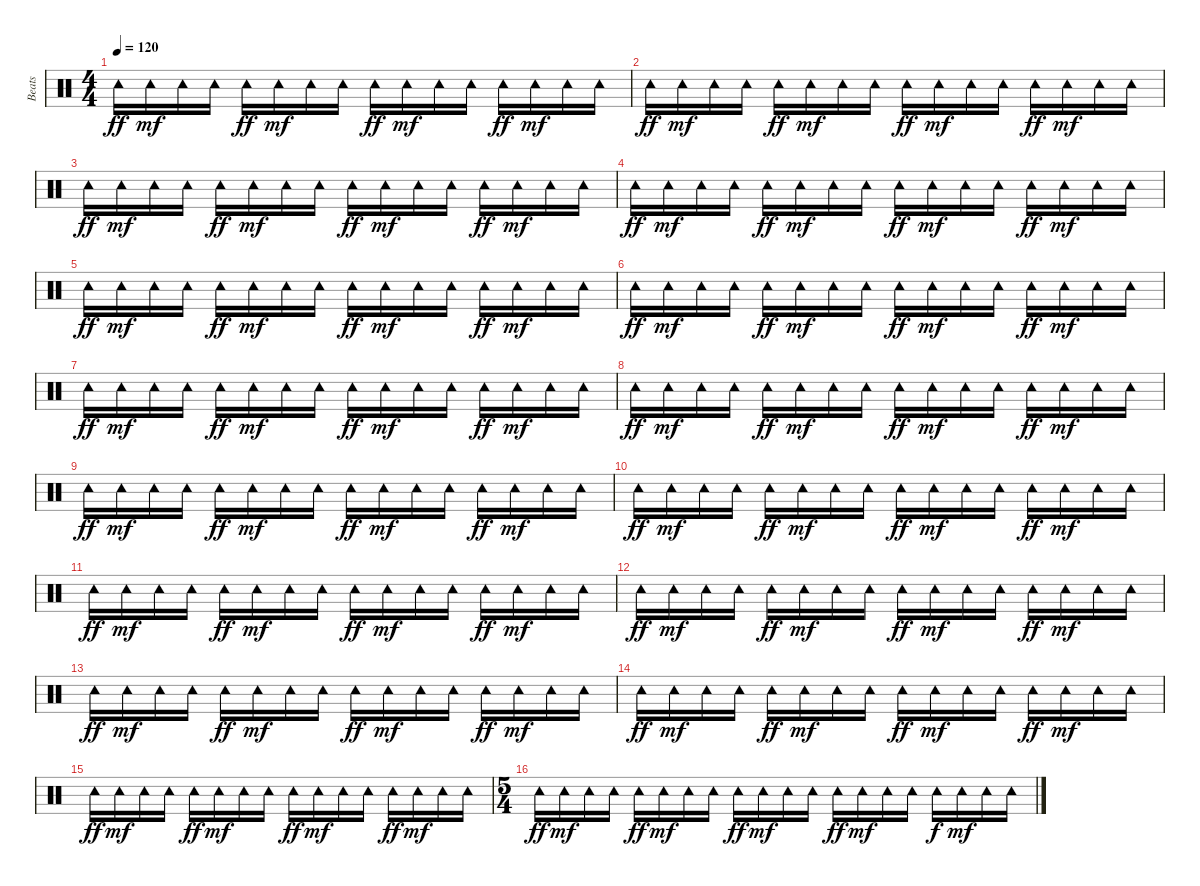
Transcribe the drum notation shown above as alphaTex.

\track ("Beats" "Beats") {instrument percussion}
\staff {score}
\articulation defaults
\ts (4 4)
\tempo 120
\clef neutral
\ks c "Tambourine (hit)".16{dy ff} "Tambourine (hit)".16{dy mf} "Tambourine (hit)".16 "Tambourine (hit)".16 "Tambourine (hit)".16{dy ff} "Tambourine (hit)".16{dy mf} "Tambourine (hit)".16 "Tambourine (hit)".16 "Tambourine (hit)".16{dy ff} "Tambourine (hit)".16{dy mf} "Tambourine (hit)".16 "Tambourine (hit)".16 "Tambourine (hit)".16{dy ff} "Tambourine (hit)".16{dy mf} "Tambourine (hit)".16 "Tambourine (hit)".16
|
"Tambourine (hit)".16{dy ff} "Tambourine (hit)".16{dy mf} "Tambourine (hit)".16 "Tambourine (hit)".16 "Tambourine (hit)".16{dy ff} "Tambourine (hit)".16{dy mf} "Tambourine (hit)".16 "Tambourine (hit)".16 "Tambourine (hit)".16{dy ff} "Tambourine (hit)".16{dy mf} "Tambourine (hit)".16 "Tambourine (hit)".16 "Tambourine (hit)".16{dy ff} "Tambourine (hit)".16{dy mf} "Tambourine (hit)".16 "Tambourine (hit)".16 |
"Tambourine (hit)".16{dy ff} "Tambourine (hit)".16{dy mf} "Tambourine (hit)".16 "Tambourine (hit)".16 "Tambourine (hit)".16{dy ff} "Tambourine (hit)".16{dy mf} "Tambourine (hit)".16 "Tambourine (hit)".16 "Tambourine (hit)".16{dy ff} "Tambourine (hit)".16{dy mf} "Tambourine (hit)".16 "Tambourine (hit)".16 "Tambourine (hit)".16{dy ff} "Tambourine (hit)".16{dy mf} "Tambourine (hit)".16 "Tambourine (hit)".16 |
"Tambourine (hit)".16{dy ff} "Tambourine (hit)".16{dy mf} "Tambourine (hit)".16 "Tambourine (hit)".16 "Tambourine (hit)".16{dy ff} "Tambourine (hit)".16{dy mf} "Tambourine (hit)".16 "Tambourine (hit)".16 "Tambourine (hit)".16{dy ff} "Tambourine (hit)".16{dy mf} "Tambourine (hit)".16 "Tambourine (hit)".16 "Tambourine (hit)".16{dy ff} "Tambourine (hit)".16{dy mf} "Tambourine (hit)".16 "Tambourine (hit)".16 |
"Tambourine (hit)".16{dy ff} "Tambourine (hit)".16{dy mf} "Tambourine (hit)".16 "Tambourine (hit)".16 "Tambourine (hit)".16{dy ff} "Tambourine (hit)".16{dy mf} "Tambourine (hit)".16 "Tambourine (hit)".16 "Tambourine (hit)".16{dy ff} "Tambourine (hit)".16{dy mf} "Tambourine (hit)".16 "Tambourine (hit)".16 "Tambourine (hit)".16{dy ff} "Tambourine (hit)".16{dy mf} "Tambourine (hit)".16 "Tambourine (hit)".16 |
"Tambourine (hit)".16{dy ff} "Tambourine (hit)".16{dy mf} "Tambourine (hit)".16 "Tambourine (hit)".16 "Tambourine (hit)".16{dy ff} "Tambourine (hit)".16{dy mf} "Tambourine (hit)".16 "Tambourine (hit)".16 "Tambourine (hit)".16{dy ff} "Tambourine (hit)".16{dy mf} "Tambourine (hit)".16 "Tambourine (hit)".16 "Tambourine (hit)".16{dy ff} "Tambourine (hit)".16{dy mf} "Tambourine (hit)".16 "Tambourine (hit)".16 |
"Tambourine (hit)".16{dy ff} "Tambourine (hit)".16{dy mf} "Tambourine (hit)".16 "Tambourine (hit)".16 "Tambourine (hit)".16{dy ff} "Tambourine (hit)".16{dy mf} "Tambourine (hit)".16 "Tambourine (hit)".16 "Tambourine (hit)".16{dy ff} "Tambourine (hit)".16{dy mf} "Tambourine (hit)".16 "Tambourine (hit)".16 "Tambourine (hit)".16{dy ff} "Tambourine (hit)".16{dy mf} "Tambourine (hit)".16 "Tambourine (hit)".16 |
"Tambourine (hit)".16{dy ff} "Tambourine (hit)".16{dy mf} "Tambourine (hit)".16 "Tambourine (hit)".16 "Tambourine (hit)".16{dy ff} "Tambourine (hit)".16{dy mf} "Tambourine (hit)".16 "Tambourine (hit)".16 "Tambourine (hit)".16{dy ff} "Tambourine (hit)".16{dy mf} "Tambourine (hit)".16 "Tambourine (hit)".16 "Tambourine (hit)".16{dy ff} "Tambourine (hit)".16{dy mf} "Tambourine (hit)".16 "Tambourine (hit)".16 |
"Tambourine (hit)".16{dy ff} "Tambourine (hit)".16{dy mf} "Tambourine (hit)".16 "Tambourine (hit)".16 "Tambourine (hit)".16{dy ff} "Tambourine (hit)".16{dy mf} "Tambourine (hit)".16 "Tambourine (hit)".16 "Tambourine (hit)".16{dy ff} "Tambourine (hit)".16{dy mf} "Tambourine (hit)".16 "Tambourine (hit)".16 "Tambourine (hit)".16{dy ff} "Tambourine (hit)".16{dy mf} "Tambourine (hit)".16 "Tambourine (hit)".16 |
"Tambourine (hit)".16{dy ff} "Tambourine (hit)".16{dy mf} "Tambourine (hit)".16 "Tambourine (hit)".16 "Tambourine (hit)".16{dy ff} "Tambourine (hit)".16{dy mf} "Tambourine (hit)".16 "Tambourine (hit)".16 "Tambourine (hit)".16{dy ff} "Tambourine (hit)".16{dy mf} "Tambourine (hit)".16 "Tambourine (hit)".16 "Tambourine (hit)".16{dy ff} "Tambourine (hit)".16{dy mf} "Tambourine (hit)".16 "Tambourine (hit)".16 |
"Tambourine (hit)".16{dy ff} "Tambourine (hit)".16{dy mf} "Tambourine (hit)".16 "Tambourine (hit)".16 "Tambourine (hit)".16{dy ff} "Tambourine (hit)".16{dy mf} "Tambourine (hit)".16 "Tambourine (hit)".16 "Tambourine (hit)".16{dy ff} "Tambourine (hit)".16{dy mf} "Tambourine (hit)".16 "Tambourine (hit)".16 "Tambourine (hit)".16{dy ff} "Tambourine (hit)".16{dy mf} "Tambourine (hit)".16 "Tambourine (hit)".16 |
"Tambourine (hit)".16{dy ff} "Tambourine (hit)".16{dy mf} "Tambourine (hit)".16 "Tambourine (hit)".16 "Tambourine (hit)".16{dy ff} "Tambourine (hit)".16{dy mf} "Tambourine (hit)".16 "Tambourine (hit)".16 "Tambourine (hit)".16{dy ff} "Tambourine (hit)".16{dy mf} "Tambourine (hit)".16 "Tambourine (hit)".16 "Tambourine (hit)".16{dy ff} "Tambourine (hit)".16{dy mf} "Tambourine (hit)".16 "Tambourine (hit)".16 |
"Tambourine (hit)".16{dy ff} "Tambourine (hit)".16{dy mf} "Tambourine (hit)".16 "Tambourine (hit)".16 "Tambourine (hit)".16{dy ff} "Tambourine (hit)".16{dy mf} "Tambourine (hit)".16 "Tambourine (hit)".16 "Tambourine (hit)".16{dy ff} "Tambourine (hit)".16{dy mf} "Tambourine (hit)".16 "Tambourine (hit)".16 "Tambourine (hit)".16{dy ff} "Tambourine (hit)".16{dy mf} "Tambourine (hit)".16 "Tambourine (hit)".16 |
"Tambourine (hit)".16{dy ff} "Tambourine (hit)".16{dy mf} "Tambourine (hit)".16 "Tambourine (hit)".16 "Tambourine (hit)".16{dy ff} "Tambourine (hit)".16{dy mf} "Tambourine (hit)".16 "Tambourine (hit)".16 "Tambourine (hit)".16{dy ff} "Tambourine (hit)".16{dy mf} "Tambourine (hit)".16 "Tambourine (hit)".16 "Tambourine (hit)".16{dy ff} "Tambourine (hit)".16{dy mf} "Tambourine (hit)".16 "Tambourine (hit)".16 |
"Tambourine (hit)".16{dy ff} "Tambourine (hit)".16{dy mf} "Tambourine (hit)".16 "Tambourine (hit)".16 "Tambourine (hit)".16{dy ff} "Tambourine (hit)".16{dy mf} "Tambourine (hit)".16 "Tambourine (hit)".16 "Tambourine (hit)".16{dy ff} "Tambourine (hit)".16{dy mf} "Tambourine (hit)".16 "Tambourine (hit)".16 "Tambourine (hit)".16{dy ff} "Tambourine (hit)".16{dy mf} "Tambourine (hit)".16 "Tambourine (hit)".16 |
\ts (5 4)
"Tambourine (hit)".16{dy ff} "Tambourine (hit)".16{dy mf} "Tambourine (hit)".16 "Tambourine (hit)".16 "Tambourine (hit)".16{dy ff} "Tambourine (hit)".16{dy mf} "Tambourine (hit)".16 "Tambourine (hit)".16 "Tambourine (hit)".16{dy ff} "Tambourine (hit)".16{dy mf} "Tambourine (hit)".16 "Tambourine (hit)".16 "Tambourine (hit)".16{dy ff} "Tambourine (hit)".16{dy mf} "Tambourine (hit)".16 "Tambourine (hit)".16 "Tambourine (hit)".16{dy f} "Tambourine (hit)".16{dy mf} "Tambourine (hit)".16 "Tambourine (hit)".16
